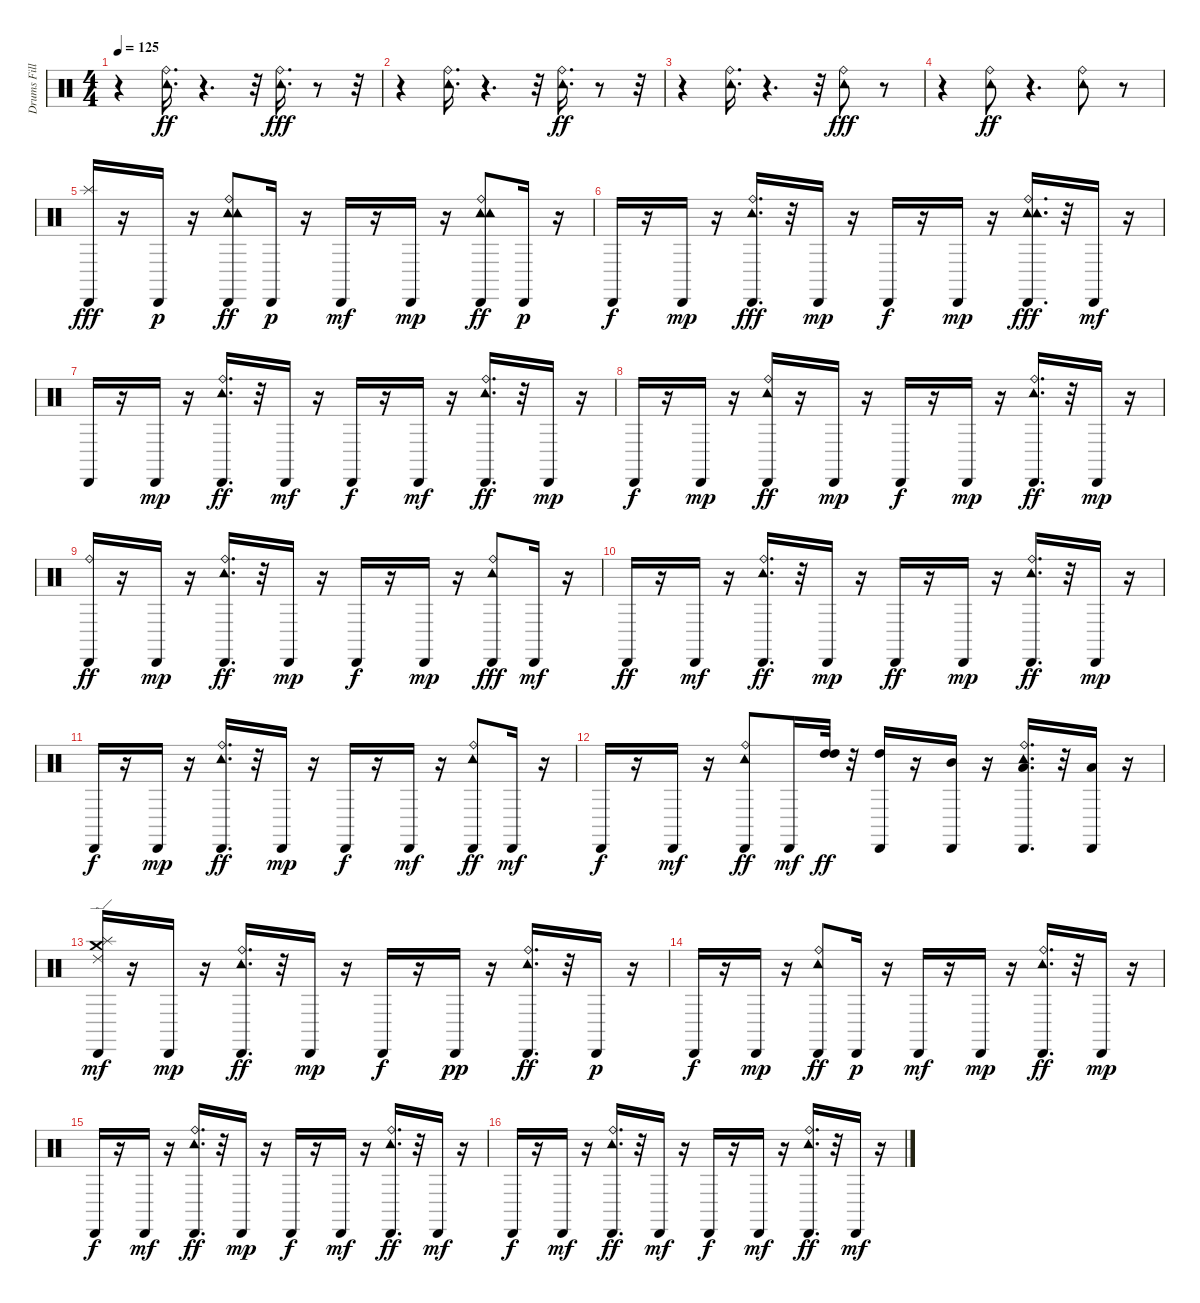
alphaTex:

\track ("Drums Fill" "Drums Fill") {instrument percussion}
\staff {score}
\articulation defaults
\ts (4 4)
\tempo 125
\clef neutral
\ks c
r.4{dy ff} ("Tambourine (hit)" "Ride (bell)").16{d} r.4{d} r.32 ("Tambourine (hit)" "Ride (bell)").16{d dy fff} r.8 r.32 |
r.4 ("Tambourine (hit)" "Ride (bell)").16{d} r.4{d} r.32 ("Tambourine (hit)" "Ride (bell)").16{d dy ff} r.8 r.32 |
r.4 ("Tambourine (hit)" "Ride (bell)").16{d} r.4{d} r.32 ("Tambourine (hit)" "Ride (bell)").8{dy fff} r.8 |
r.4 ("Tambourine (hit)" "Ride (bell)").8{dy ff} r.4{d} ("Tambourine (hit)" "Ride (bell)").8 r.8 |
("Splash (hit)" "Cabasa (hit)").16{dy fff} r.16 "Cabasa (hit)".16{dy p} r.16 ("Tambourine (hit)" "Cabasa (hit)" "Tambourine (hit)" "Ride (bell)").8{dy ff} "Cabasa (hit)".16{dy p} r.16 "Cabasa (hit)".16{dy mf} r.16 "Cabasa (hit)".16{dy mp} r.16 ("Tambourine (hit)" "Cabasa (hit)" "Tambourine (hit)" "Ride (bell)").8{dy ff} "Cabasa (hit)".16{dy p} r.16 |
"Cabasa (hit)".16{dy f} r.16 "Cabasa (hit)".16{dy mp} r.16 ("Cabasa (hit)" "Tambourine (hit)" "Ride (bell)").16{d dy fff} r.32 "Cabasa (hit)".16{dy mp} r.16 "Cabasa (hit)".16{dy f} r.16 "Cabasa (hit)".16{dy mp} r.16 ("Cabasa (hit)" "Tambourine (hit)" "Tambourine (hit)" "Ride (bell)").16{d dy fff} r.32 "Cabasa (hit)".16{dy mf} r.16 |
"Cabasa (hit)".16 r.16 "Cabasa (hit)".16{dy mp} r.16 ("Cabasa (hit)" "Tambourine (hit)" "Ride (bell)").16{d dy ff} r.32 "Cabasa (hit)".16{dy mf} r.16 "Cabasa (hit)".16{dy f} r.16 "Cabasa (hit)".16{dy mf} r.16 ("Cabasa (hit)" "Tambourine (hit)" "Ride (bell)").16{d dy ff} r.32 "Cabasa (hit)".16{dy mp} r.16 |
"Cabasa (hit)".16{dy f} r.16 "Cabasa (hit)".16{dy mp} r.16 ("Cabasa (hit)" "Tambourine (hit)" "Ride (bell)").16{dy ff} r.16 "Cabasa (hit)".16{dy mp} r.16 "Cabasa (hit)".16{dy f} r.16 "Cabasa (hit)".16{dy mp} r.16 ("Tambourine (hit)" "Cabasa (hit)" "Ride (bell)").16{d dy ff} r.32 "Cabasa (hit)".16{dy mp} r.16 |
("Cabasa (hit)" "Ride (bell)").16{dy ff} r.16 "Cabasa (hit)".16{dy mp} r.16 ("Cabasa (hit)" "Tambourine (hit)" "Ride (bell)").16{d dy ff} r.32 "Cabasa (hit)".16{dy mp} r.16 "Cabasa (hit)".16{dy f} r.16 "Cabasa (hit)".16{dy mp} r.16 ("Cabasa (hit)" "Tambourine (hit)" "Ride (bell)").8{dy fff} "Cabasa (hit)".16{dy mf} r.16 |
"Cabasa (hit)".16{dy ff} r.16 "Cabasa (hit)".16{dy mf} r.16 ("Cabasa (hit)" "Tambourine (hit)" "Ride (bell)").16{d dy ff} r.32 "Cabasa (hit)".16{dy mp} r.16 "Cabasa (hit)".16{dy ff} r.16 "Cabasa (hit)".16{dy mp} r.16 ("Cabasa (hit)" "Tambourine (hit)" "Ride (bell)").16{d dy ff} r.32 "Cabasa (hit)".16{dy mp} r.16 |
"Cabasa (hit)".16{dy f} r.16 "Cabasa (hit)".16{dy mp} r.16 ("Cabasa (hit)" "Tambourine (hit)" "Ride (bell)").16{d dy ff} r.32 "Cabasa (hit)".16{dy mp} r.16 "Cabasa (hit)".16{dy f} r.16 "Cabasa (hit)".16{dy mf} r.16 ("Cabasa (hit)" "Tambourine (hit)" "Ride (bell)").8{dy ff} "Cabasa (hit)".16{dy mf} r.16 |
"Cabasa (hit)".16{dy f} r.16 "Cabasa (hit)".16{dy mf} r.16 ("Cabasa (hit)" "Tambourine (hit)" "Ride (bell)").8{dy ff} "Cabasa (hit)".16{dy mf} ("High Tom (hit)" "High Tom (hit)").32{dy ff} r.32 ("High Tom (hit)" "Cabasa (hit)").16 r.16 ("Cabasa (hit)" "Mid Tom (hit)").16 r.16 ("Ride (bell)" "Cabasa (hit)" "Tambourine (hit)" "Low Tom (hit)").16{d} r.32 ("Cabasa (hit)" "Low Tom (hit)").16 r.16 |
("Splash (hit)" "Crash medium (hit)" "Ride (edge) 2" "Cabasa (hit)").16{dy mf} r.16 "Cabasa (hit)".16{dy mp} r.16 ("Tambourine (hit)" "Cabasa (hit)" "Ride (bell)").16{d dy ff} r.32 "Cabasa (hit)".16{dy mp} r.16 "Cabasa (hit)".16{dy f} r.16 "Cabasa (hit)".16{dy pp} r.16 ("Cabasa (hit)" "Tambourine (hit)" "Ride (bell)").16{d dy ff} r.32 "Cabasa (hit)".16{dy p} r.16 |
"Cabasa (hit)".16{dy f} r.16 "Cabasa (hit)".16{dy mp} r.16 ("Cabasa (hit)" "Tambourine (hit)" "Ride (bell)").8{dy ff} "Cabasa (hit)".16{dy p} r.16 "Cabasa (hit)".16{dy mf} r.16 "Cabasa (hit)".16{dy mp} r.16 ("Tambourine (hit)" "Cabasa (hit)" "Ride (bell)").16{d dy ff} r.32 "Cabasa (hit)".16{dy mp} r.16 |
"Cabasa (hit)".16{dy f} r.16 "Cabasa (hit)".16{dy mf} r.16 ("Cabasa (hit)" "Tambourine (hit)" "Ride (bell)").16{d dy ff} r.32 "Cabasa (hit)".16{dy mp} r.16 "Cabasa (hit)".16{dy f} r.16 "Cabasa (hit)".16{dy mf} r.16 ("Tambourine (hit)" "Cabasa (hit)" "Ride (bell)").16{d dy ff} r.32 "Cabasa (hit)".16{dy mf} r.16 |
"Cabasa (hit)".16{dy f} r.16 "Cabasa (hit)".16{dy mf} r.16 ("Cabasa (hit)" "Tambourine (hit)" "Ride (bell)").16{d dy ff} r.32 "Cabasa (hit)".16{dy mf} r.16 "Cabasa (hit)".16{dy f} r.16 "Cabasa (hit)".16{dy mf} r.16 ("Tambourine (hit)" "Cabasa (hit)" "Ride (bell)").16{d dy ff} r.32 "Cabasa (hit)".16{dy mf} r.16
